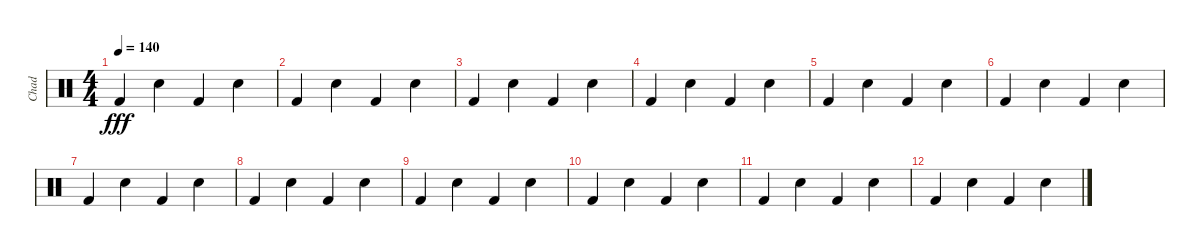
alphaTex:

\track ("Chad" "Chad") {instrument percussion}
\staff {score}
\articulation defaults
\ts (4 4)
\tempo 140
\clef neutral
\ks c "Kick (hit) 2".4{dy fff} "Electric Snare (hit)".4 "Kick (hit) 2".4 "Electric Snare (hit)".4
|
"Kick (hit) 2".4 "Electric Snare (hit)".4 "Kick (hit) 2".4 "Electric Snare (hit)".4 |
"Kick (hit) 2".4 "Electric Snare (hit)".4 "Kick (hit) 2".4 "Electric Snare (hit)".4 |
"Kick (hit) 2".4 "Electric Snare (hit)".4 "Kick (hit) 2".4 "Electric Snare (hit)".4 |
"Kick (hit) 2".4 "Electric Snare (hit)".4 "Kick (hit) 2".4 "Electric Snare (hit)".4 |
"Kick (hit) 2".4 "Electric Snare (hit)".4 "Kick (hit) 2".4 "Electric Snare (hit)".4 |
"Kick (hit) 2".4 "Electric Snare (hit)".4 "Kick (hit) 2".4 "Electric Snare (hit)".4 |
"Kick (hit) 2".4 "Electric Snare (hit)".4 "Kick (hit) 2".4 "Electric Snare (hit)".4 |
"Kick (hit) 2".4 "Electric Snare (hit)".4 "Kick (hit) 2".4 "Electric Snare (hit)".4 |
"Kick (hit) 2".4 "Electric Snare (hit)".4 "Kick (hit) 2".4 "Electric Snare (hit)".4 |
"Kick (hit) 2".4 "Electric Snare (hit)".4 "Kick (hit) 2".4 "Electric Snare (hit)".4 |
"Kick (hit) 2".4 "Electric Snare (hit)".4 "Kick (hit) 2".4 "Electric Snare (hit)".4
